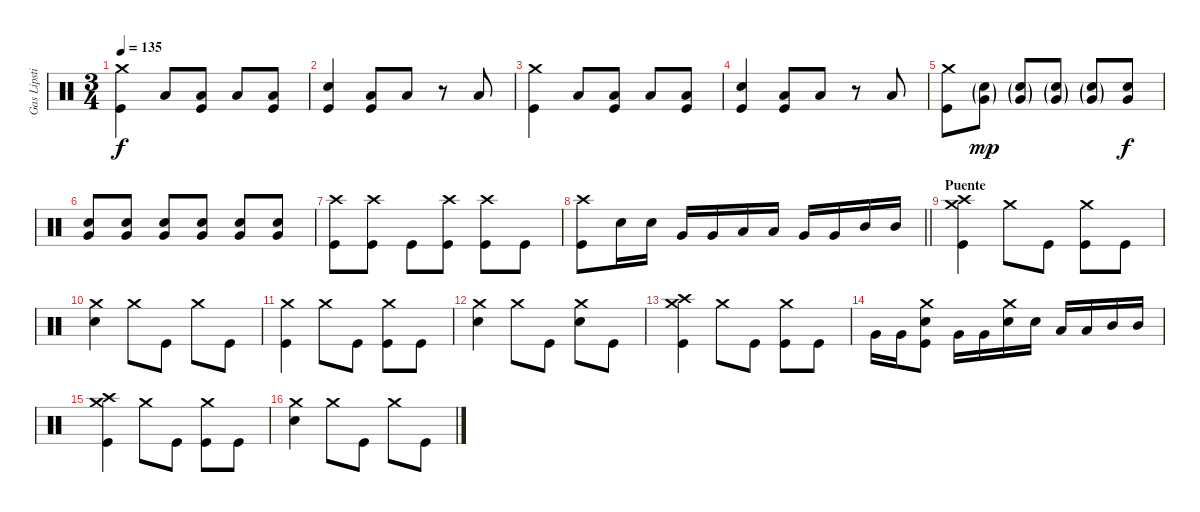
\track ("Gas Lipstick" "Gas Lipsti") {instrument percussion}
\staff {score}
\articulation defaults
\ts (3 4)
\tempo 135
\clef neutral
\ks c
("Crash medium (hit)" "Kick (hit)").4{dy f} "Low Tom (hit)".8 ("Low Tom (hit)" "Kick (hit)").8 "Low Tom (hit)".8 ("Low Tom (hit)" "Kick (hit)").8 |
("Snare (hit) 2" "Kick (hit)").4 ("Low Tom (hit)" "Kick (hit)").8 "Low Tom (hit)".8 r.8 "Low Tom (hit)".8 |
("Crash medium (hit)" "Kick (hit)").4 "Low Tom (hit)".8 ("Low Tom (hit)" "Kick (hit)").8 "Low Tom (hit)".8 ("Low Tom (hit)" "Kick (hit)").8 |
("Snare (hit) 2" "Kick (hit)").4 ("Low Tom (hit)" "Kick (hit)").8 "Low Tom (hit)".8 r.8 "Low Tom (hit)".8 |
("Crash medium (hit)" "Kick (hit)").8 ("Very Low Tom (hit)"{g} "Snare (hit) 2"{g}).8{dy mp} ("Very Low Tom (hit)"{g} "Snare (hit) 2"{g}).8 ("Very Low Tom (hit)"{g} "Snare (hit) 2"{g}).8 ("Very Low Tom (hit)"{g} "Snare (hit) 2"{g}).8 ("Very Low Tom (hit)" "Snare (hit) 2").8{dy f} |
("Very Low Tom (hit)" "Snare (hit) 2").8 ("Very Low Tom (hit)" "Snare (hit) 2").8 ("Very Low Tom (hit)" "Snare (hit) 2").8 ("Very Low Tom (hit)" "Snare (hit) 2").8 ("Very Low Tom (hit)" "Snare (hit) 2").8 ("Very Low Tom (hit)" "Snare (hit) 2").8 |
("Crash high (hit)" "Kick (hit)").8 ("Crash high (hit)" "Kick (hit)").8 "Kick (hit)".8 ("Crash high (hit)" "Kick (hit)").8 ("Crash high (hit)" "Kick (hit)").8 "Kick (hit)".8 |
\barLineRight lightlight
("Crash high (hit)" "Kick (hit)").8 "Snare (hit) 2".16 "Snare (hit) 2".16 "Very Low Tom (hit)".16 "Very Low Tom (hit)".16 "Low Tom (hit)".16 "Low Tom (hit)".16 "Very Low Tom (hit)".16 "Very Low Tom (hit)".16 "Mid Tom (hit)".16 "Mid Tom (hit)".16 |
\section ("" "Puente")
("Crash medium (hit)" "Crash high (hit)" "Kick (hit)").4 "Crash medium (hit)".8 "Kick (hit)".8 ("Crash medium (hit)" "Kick (hit)").8 "Kick (hit)".8 |
("Crash medium (hit)" "Snare (hit) 2").4 "Crash medium (hit)".8 "Kick (hit)".8 "Crash medium (hit)".8 "Kick (hit)".8 |
("Crash medium (hit)" "Kick (hit)").4 "Crash medium (hit)".8 "Kick (hit)".8 ("Crash medium (hit)" "Kick (hit)").8 "Kick (hit)".8 |
("Crash medium (hit)" "Snare (hit) 2").4 "Crash medium (hit)".8 "Kick (hit)".8 ("Crash medium (hit)" "Snare (hit) 2").8 "Kick (hit)".8 |
("Crash medium (hit)" "Crash high (hit)" "Kick (hit)").4 "Crash medium (hit)".8 "Kick (hit)".8 ("Crash medium (hit)" "Kick (hit)").8 "Kick (hit)".8 |
"Very Low Tom (hit)".16 "Very Low Tom (hit)".16 ("Crash medium (hit)" "Snare (hit) 2" "Kick (hit)").8 "Very Low Tom (hit)".16 "Very Low Tom (hit)".16 ("Snare (hit) 2" "Crash medium (hit)").16 "Snare (hit) 2".16 "Low Tom (hit)".16 "Low Tom (hit)".16 "Mid Tom (hit)".16 "Mid Tom (hit)".16 |
("Crash medium (hit)" "Crash high (hit)" "Kick (hit)").4 "Crash medium (hit)".8 "Kick (hit)".8 ("Crash medium (hit)" "Kick (hit)").8 "Kick (hit)".8 |
("Crash medium (hit)" "Snare (hit) 2").4 "Crash medium (hit)".8 "Kick (hit)".8 "Crash medium (hit)".8 "Kick (hit)".8
